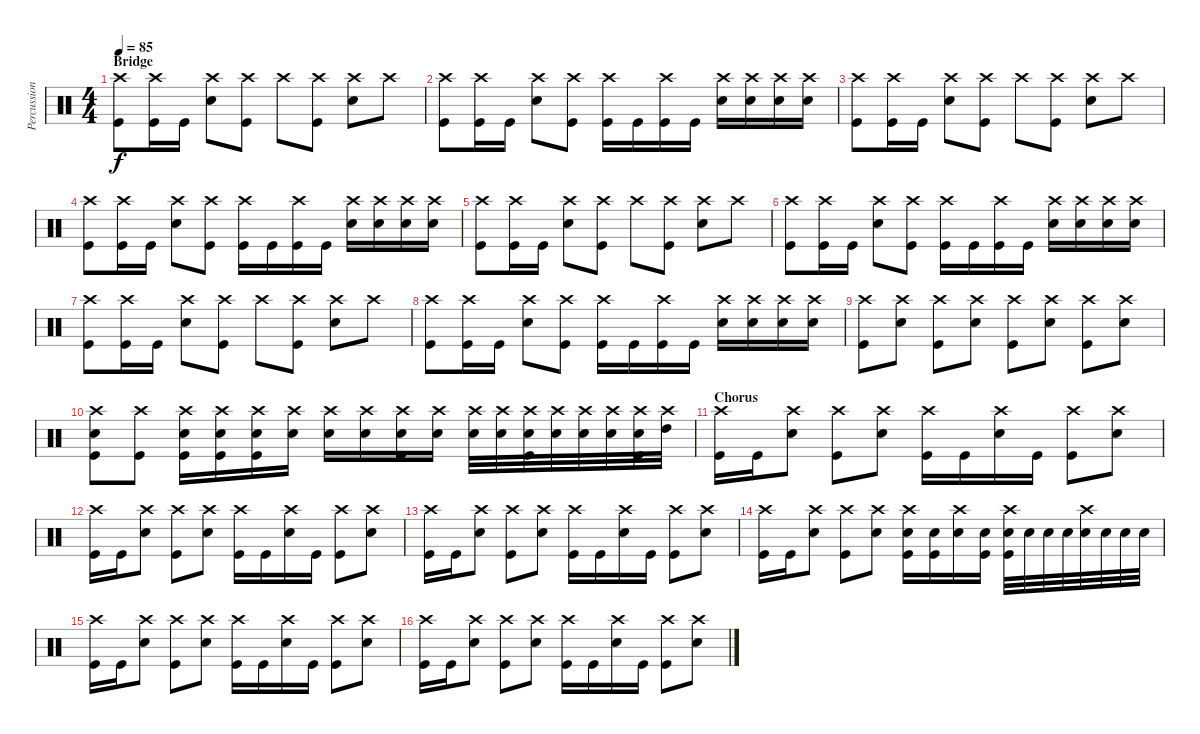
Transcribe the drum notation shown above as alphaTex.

\track ("Percussion" "Percussion") {instrument percussion}
\staff {score}
\articulation defaults
\ts (4 4)
\section ("" "Bridge")
\tempo 85
\clef neutral
\ks c
("Crash high (hit)" "Kick (hit)").8{dy f} ("Crash high (hit)" "Kick (hit)").16 "Kick (hit)".16 ("Crash high (hit)" "Snare (hit) 2").8 ("Crash high (hit)" "Kick (hit)").8 "Crash high (hit)".8 ("Crash high (hit)" "Kick (hit)").8 ("Crash high (hit)" "Snare (hit) 2").8 "Crash high (hit)".8 |
("Crash high (hit)" "Kick (hit)").8 ("Crash high (hit)" "Kick (hit)").16 "Kick (hit)".16 ("Crash high (hit)" "Snare (hit) 2").8 ("Crash high (hit)" "Kick (hit)").8 ("Crash high (hit)" "Kick (hit)").16 "Kick (hit)".16 ("Crash high (hit)" "Kick (hit)").16 "Kick (hit)".16 ("Crash high (hit)" "Snare (hit) 2").16 ("Crash high (hit)" "Snare (hit) 2").16 ("Crash high (hit)" "Snare (hit) 2").16 ("Crash high (hit)" "Snare (hit) 2").16 |
("Crash high (hit)" "Kick (hit)").8 ("Crash high (hit)" "Kick (hit)").16 "Kick (hit)".16 ("Crash high (hit)" "Snare (hit) 2").8 ("Crash high (hit)" "Kick (hit)").8 "Crash high (hit)".8 ("Crash high (hit)" "Kick (hit)").8 ("Crash high (hit)" "Snare (hit) 2").8 "Crash high (hit)".8 |
("Crash high (hit)" "Kick (hit)").8 ("Crash high (hit)" "Kick (hit)").16 "Kick (hit)".16 ("Crash high (hit)" "Snare (hit) 2").8 ("Crash high (hit)" "Kick (hit)").8 ("Crash high (hit)" "Kick (hit)").16 "Kick (hit)".16 ("Crash high (hit)" "Kick (hit)").16 "Kick (hit)".16 ("Crash high (hit)" "Snare (hit) 2").16 ("Crash high (hit)" "Snare (hit) 2").16 ("Crash high (hit)" "Snare (hit) 2").16 ("Crash high (hit)" "Snare (hit) 2").16 |
("Crash high (hit)" "Kick (hit)").8 ("Crash high (hit)" "Kick (hit)").16 "Kick (hit)".16 ("Crash high (hit)" "Snare (hit) 2").8 ("Crash high (hit)" "Kick (hit)").8 "Crash high (hit)".8 ("Crash high (hit)" "Kick (hit)").8 ("Crash high (hit)" "Snare (hit) 2").8 "Crash high (hit)".8 |
("Crash high (hit)" "Kick (hit)").8 ("Crash high (hit)" "Kick (hit)").16 "Kick (hit)".16 ("Crash high (hit)" "Snare (hit) 2").8 ("Crash high (hit)" "Kick (hit)").8 ("Crash high (hit)" "Kick (hit)").16 "Kick (hit)".16 ("Crash high (hit)" "Kick (hit)").16 "Kick (hit)".16 ("Crash high (hit)" "Snare (hit) 2").16 ("Crash high (hit)" "Snare (hit) 2").16 ("Crash high (hit)" "Snare (hit) 2").16 ("Crash high (hit)" "Snare (hit) 2").16 |
("Crash high (hit)" "Kick (hit)").8 ("Crash high (hit)" "Kick (hit)").16 "Kick (hit)".16 ("Crash high (hit)" "Snare (hit) 2").8 ("Crash high (hit)" "Kick (hit)").8 "Crash high (hit)".8 ("Crash high (hit)" "Kick (hit)").8 ("Crash high (hit)" "Snare (hit) 2").8 "Crash high (hit)".8 |
("Crash high (hit)" "Kick (hit)").8 ("Crash high (hit)" "Kick (hit)").16 "Kick (hit)".16 ("Crash high (hit)" "Snare (hit) 2").8 ("Crash high (hit)" "Kick (hit)").8 ("Crash high (hit)" "Kick (hit)").16 "Kick (hit)".16 ("Crash high (hit)" "Kick (hit)").16 "Kick (hit)".16 ("Crash high (hit)" "Snare (hit) 2").16 ("Crash high (hit)" "Snare (hit) 2").16 ("Crash high (hit)" "Snare (hit) 2").16 ("Crash high (hit)" "Snare (hit) 2").16 |
("Crash high (hit)" "Kick (hit)").8 ("Crash high (hit)" "Snare (hit) 2").8 ("Crash high (hit)" "Kick (hit)").8 ("Crash high (hit)" "Snare (hit) 2").8 ("Crash high (hit)" "Kick (hit)").8 ("Crash high (hit)" "Snare (hit) 2").8 ("Crash high (hit)" "Kick (hit)").8 ("Crash high (hit)" "Snare (hit) 2").8 |
("Crash high (hit)" "Snare (hit) 2" "Kick (hit)").8 ("Crash high (hit)" "Kick (hit)").8 ("Crash high (hit)" "Snare (hit) 2" "Kick (hit)").16 ("Crash high (hit)" "Snare (hit) 2" "Kick (hit)").16 ("Crash high (hit)" "Snare (hit) 2" "Kick (hit)").16 ("Crash high (hit)" "Snare (hit) 2").16 ("Crash high (hit)" "Snare (hit) 2").16 ("Crash high (hit)" "Snare (hit) 2").16 ("Crash high (hit)" "Snare (hit) 2" "Kick (hit)").16 ("Crash high (hit)" "Snare (hit) 2").16 ("Crash high (hit)" "Snare (hit) 2").32 ("Crash high (hit)" "Snare (hit) 2").32 ("Crash high (hit)" "Snare (hit) 2" "Kick (hit)").32 ("Crash high (hit)" "Snare (hit) 2").32 ("Crash high (hit)" "Snare (hit) 2").32 ("Crash high (hit)" "Snare (hit) 2").32 ("Crash high (hit)" "Snare (hit) 2" "Kick (hit)").32 ("Crash high (hit)" "High Tom (hit)").32 |
\section ("" "Chorus")
("Crash high (hit)" "Kick (hit)").16 "Kick (hit)".16 ("Crash high (hit)" "Snare (hit) 2").8 ("Crash high (hit)" "Kick (hit)").8 ("Crash high (hit)" "Snare (hit) 2").8 ("Crash high (hit)" "Kick (hit)").16 "Kick (hit)".16 ("Crash high (hit)" "Snare (hit) 2").16 "Kick (hit)".16 ("Crash high (hit)" "Kick (hit)").8 ("Crash high (hit)" "Snare (hit) 2").8 |
("Crash high (hit)" "Kick (hit)").16 "Kick (hit)".16 ("Crash high (hit)" "Snare (hit) 2").8 ("Crash high (hit)" "Kick (hit)").8 ("Crash high (hit)" "Snare (hit) 2").8 ("Crash high (hit)" "Kick (hit)").16 "Kick (hit)".16 ("Crash high (hit)" "Snare (hit) 2").16 "Kick (hit)".16 ("Crash high (hit)" "Kick (hit)").8 ("Crash high (hit)" "Snare (hit) 2").8 |
("Crash high (hit)" "Kick (hit)").16 "Kick (hit)".16 ("Crash high (hit)" "Snare (hit) 2").8 ("Crash high (hit)" "Kick (hit)").8 ("Crash high (hit)" "Snare (hit) 2").8 ("Crash high (hit)" "Kick (hit)").16 "Kick (hit)".16 ("Crash high (hit)" "Snare (hit) 2").16 "Kick (hit)".16 ("Crash high (hit)" "Kick (hit)").8 ("Crash high (hit)" "Snare (hit) 2").8 |
("Crash high (hit)" "Kick (hit)").16 "Kick (hit)".16 ("Crash high (hit)" "Snare (hit) 2").8 ("Crash high (hit)" "Kick (hit)").8 ("Crash high (hit)" "Snare (hit) 2").8 ("Crash high (hit)" "Snare (hit) 2" "Kick (hit)").16 ("Snare (hit) 2" "Kick (hit)").16 ("Crash high (hit)" "Snare (hit) 2").16 ("Snare (hit) 2" "Kick (hit)").16 ("Crash high (hit)" "Snare (hit) 2" "Kick (hit)").32 "Snare (hit) 2".32 "Snare (hit) 2".32 "Snare (hit) 2".32 ("Crash high (hit)" "Snare (hit) 2").32 "Snare (hit) 2".32 "Snare (hit) 2".32 "Snare (hit) 2".32 |
("Crash high (hit)" "Kick (hit)").16 "Kick (hit)".16 ("Crash high (hit)" "Snare (hit) 2").8 ("Crash high (hit)" "Kick (hit)").8 ("Crash high (hit)" "Snare (hit) 2").8 ("Crash high (hit)" "Kick (hit)").16 "Kick (hit)".16 ("Crash high (hit)" "Snare (hit) 2").16 "Kick (hit)".16 ("Crash high (hit)" "Kick (hit)").8 ("Crash high (hit)" "Snare (hit) 2").8 |
("Crash high (hit)" "Kick (hit)").16 "Kick (hit)".16 ("Crash high (hit)" "Snare (hit) 2").8 ("Crash high (hit)" "Kick (hit)").8 ("Crash high (hit)" "Snare (hit) 2").8 ("Crash high (hit)" "Kick (hit)").16 "Kick (hit)".16 ("Crash high (hit)" "Snare (hit) 2").16 "Kick (hit)".16 ("Crash high (hit)" "Kick (hit)").8 ("Crash high (hit)" "Snare (hit) 2").8
